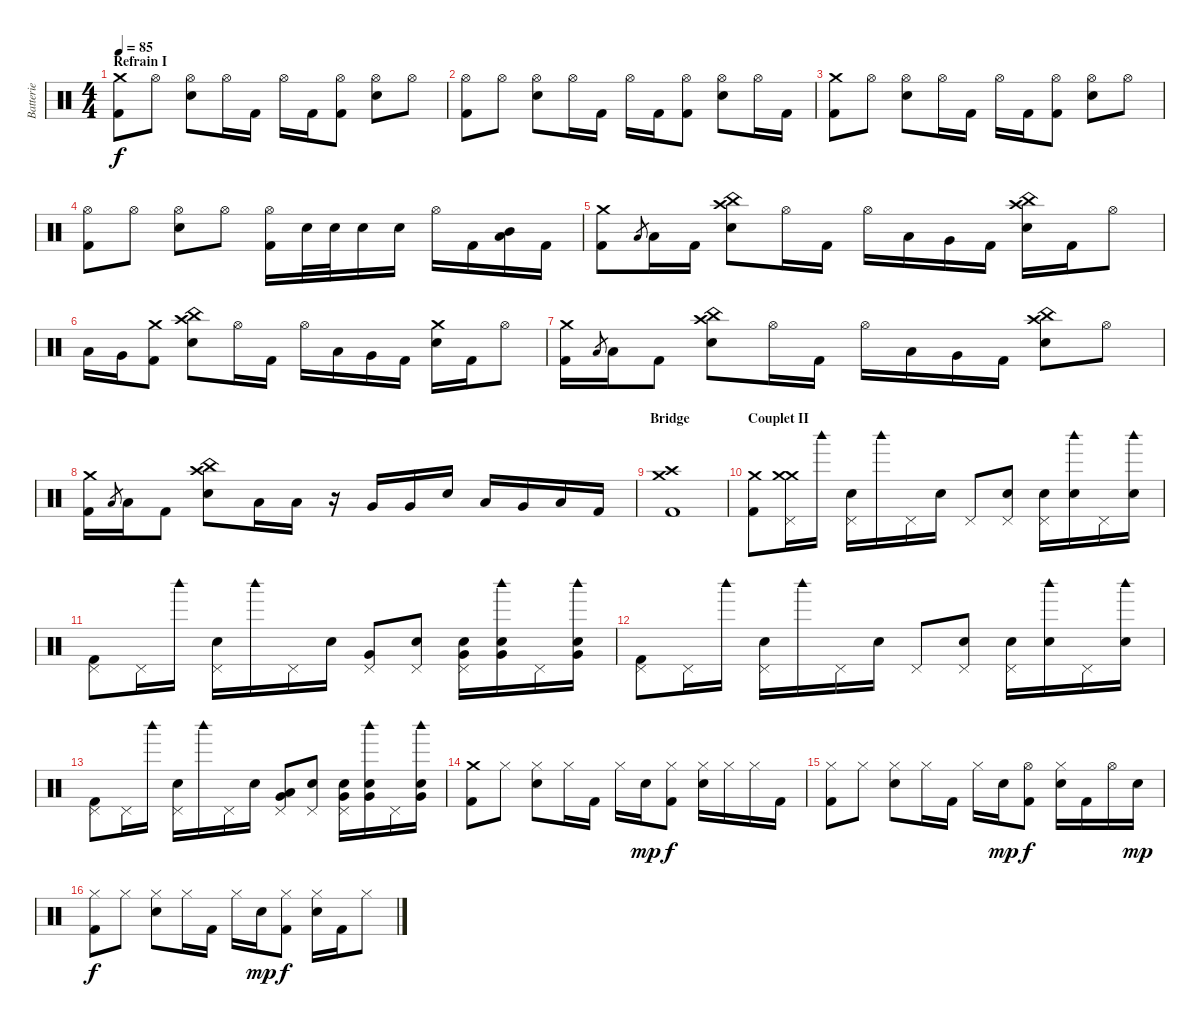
\track ("Batterie" "Batterie") {instrument percussion}
\staff {score}
\articulation defaults
\ts (4 4)
\section ("" "Refrain I")
\tempo 85
\clef neutral
\ks c
("Crash medium (hit)" "Kick (hit) 2").8{dy f} "Hi-Hat (open)".8 ("Hi-Hat (open)" "Electric Snare (hit)").8 "Hi-Hat (open)".16 "Kick (hit) 2".16 "Hi-Hat (open)".16 "Kick (hit) 2".16 ("Hi-Hat (open)" "Kick (hit) 2").8 ("Hi-Hat (open)" "Electric Snare (hit)").8 "Hi-Hat (open)".8 |
("Hi-Hat (open)" "Kick (hit) 2").8 "Hi-Hat (open)".8 ("Hi-Hat (open)" "Electric Snare (hit)").8 "Hi-Hat (open)".16 "Kick (hit) 2".16 "Hi-Hat (open)".16 "Kick (hit) 2".16 ("Hi-Hat (open)" "Kick (hit) 2").8 ("Hi-Hat (open)" "Electric Snare (hit)").8 "Hi-Hat (open)".16 "Kick (hit) 2".16 |
("Crash medium (hit)" "Kick (hit) 2").8 "Hi-Hat (open)".8 ("Hi-Hat (open)" "Electric Snare (hit)").8 "Hi-Hat (open)".16 "Kick (hit) 2".16 "Hi-Hat (open)".16 "Kick (hit) 2".16 ("Hi-Hat (open)" "Kick (hit) 2").8 ("Hi-Hat (open)" "Electric Snare (hit)").8 "Hi-Hat (open)".8 |
("Hi-Hat (open)" "Kick (hit) 2").8 "Hi-Hat (open)".8 ("Hi-Hat (open)" "Electric Snare (hit)").8 "Hi-Hat (open)".8 ("Hi-Hat (open)" "Kick (hit) 2").16 "Electric Snare (hit)".32 "Electric Snare (hit)".32 "Electric Snare (hit)".16 "Electric Snare (hit)".16 "Hi-Hat (open)".16 "Kick (hit) 2".16 ("Mid Tom (hit)" "Low Tom (hit)").16 "Kick (hit) 2".16 |
("Crash medium (hit)" "Kick (hit) 2").8 "Low Tom (hit)".8{gr} "Low Tom (hit)".16 "Kick (hit) 2".16 ("Crash high (hit)" "China (hit)" "Electric Snare (hit)").8 "Hi-Hat (open)".16 "Kick (hit) 2".16 "Hi-Hat (open)".16 "Low Tom (hit)".16 "Very Low Tom (hit)".16 "Kick (hit) 2".16 ("Crash high (hit)" "China (hit)" "Electric Snare (hit)").16 "Kick (hit) 2".16 "Hi-Hat (open)".8 |
"Low Tom (hit)".16 "Very Low Tom (hit)".16 ("Crash medium (hit)" "Kick (hit) 2").8 ("Crash high (hit)" "China (hit)" "Electric Snare (hit)").8 "Hi-Hat (open)".16 "Kick (hit) 2".16 "Hi-Hat (open)".16 "Low Tom (hit)".16 "Very Low Tom (hit)".16 "Kick (hit) 2".16 ("Crash medium (hit)" "Electric Snare (hit)").16 "Kick (hit) 2".16 "Hi-Hat (open)".8 |
("Crash medium (hit)" "Kick (hit) 2").16 "Low Tom (hit)".8{gr} "Low Tom (hit)".16 "Kick (hit) 2".8 ("Crash high (hit)" "China (hit)" "Electric Snare (hit)").8 "Hi-Hat (open)".16 "Kick (hit) 2".16 "Hi-Hat (open)".16 "Low Tom (hit)".16 "Very Low Tom (hit)".16 "Kick (hit) 2".16 ("Crash high (hit)" "China (hit)" "Electric Snare (hit)").8 "Hi-Hat (open)".8 |
("Crash medium (hit)" "Kick (hit) 2").16 "Low Tom (hit)".8{gr} "Low Tom (hit)".16 "Kick (hit) 2".8 ("Crash high (hit)" "China (hit)" "Electric Snare (hit)").8 "Low Tom (hit)".16 "Low Tom (hit)".16 r.16 "Very Low Tom (hit)".16 "Very Low Tom (hit)".16 "Electric Snare (hit)".16 "Low Tom (hit)".16 "Very Low Tom (hit)".16 "Low Floor Tom (hit)".16 "Kick (hit) 2".16 |
\section ("" "Bridge")
("Crash medium (hit)" "Crash high (hit)" "Kick (hit) 2").1 |
\section ("" "Couplet II")
("Crash medium (hit)" "Kick (hit) 2").8 ("Crash medium (hit)" "Crash medium (hit)" "Pedal Hi-Hat (hit)").16{volume 6} "Woodblock high (hit)".16 ("Pedal Hi-Hat (hit)" "Electric Snare (hit)").16 "Woodblock high (hit)".16 "Pedal Hi-Hat (hit)".16 "Electric Snare (hit)".16 "Pedal Hi-Hat (hit)".8 ("Pedal Hi-Hat (hit)" "Electric Snare (hit)").8 ("Pedal Hi-Hat (hit)" "Electric Snare (hit)").16 ("Electric Snare (hit)" "Woodblock high (hit)").16 "Pedal Hi-Hat (hit)".16 ("Electric Snare (hit)" "Woodblock high (hit)").16 |
("Pedal Hi-Hat (hit)" "Kick (hit) 2").8 "Pedal Hi-Hat (hit)".16 "Woodblock high (hit)".16 ("Pedal Hi-Hat (hit)" "Electric Snare (hit)").16 "Woodblock high (hit)".16 "Pedal Hi-Hat (hit)".16 "Electric Snare (hit)".16 ("Pedal Hi-Hat (hit)" "Very Low Tom (hit)").8 ("Pedal Hi-Hat (hit)" "Electric Snare (hit)").8 ("Pedal Hi-Hat (hit)" "Electric Snare (hit)" "Very Low Tom (hit)").16 ("Electric Snare (hit)" "Woodblock high (hit)" "Very Low Tom (hit)").16 "Pedal Hi-Hat (hit)".16 ("Electric Snare (hit)" "Woodblock high (hit)" "Very Low Tom (hit)").16 |
("Pedal Hi-Hat (hit)" "Kick (hit) 2").8 "Pedal Hi-Hat (hit)".16 "Woodblock high (hit)".16 ("Pedal Hi-Hat (hit)" "Electric Snare (hit)").16 "Woodblock high (hit)".16 "Pedal Hi-Hat (hit)".16 "Electric Snare (hit)".16 "Pedal Hi-Hat (hit)".8 ("Pedal Hi-Hat (hit)" "Electric Snare (hit)").8 ("Pedal Hi-Hat (hit)" "Electric Snare (hit)").16 ("Electric Snare (hit)" "Woodblock high (hit)").16 "Pedal Hi-Hat (hit)".16 ("Electric Snare (hit)" "Woodblock high (hit)").16 |
("Pedal Hi-Hat (hit)" "Kick (hit) 2").8 "Pedal Hi-Hat (hit)".16 "Woodblock high (hit)".16 ("Pedal Hi-Hat (hit)" "Electric Snare (hit)").16 "Woodblock high (hit)".16 "Pedal Hi-Hat (hit)".16 "Electric Snare (hit)".16 ("Pedal Hi-Hat (hit)" "Low Tom (hit)" "Very Low Tom (hit)").8 ("Pedal Hi-Hat (hit)" "Electric Snare (hit)").8 ("Pedal Hi-Hat (hit)" "Electric Snare (hit)" "Very Low Tom (hit)").16 ("Electric Snare (hit)" "Woodblock high (hit)" "Very Low Tom (hit)").16 "Pedal Hi-Hat (hit)".16 ("Electric Snare (hit)" "Woodblock high (hit)" "Very Low Tom (hit)").16 |
("Crash medium (hit)" "Kick (hit) 2").8{volume 13} "Hi-Hat (closed)".8 ("Hi-Hat (closed)" "Electric Snare (hit)").8 "Hi-Hat (closed)".16 "Kick (hit) 2".16 "Hi-Hat (closed)".16 "Electric Snare (hit)".16{dy mp} ("Hi-Hat (closed)" "Kick (hit) 2").8{dy f} ("Hi-Hat (closed)" "Electric Snare (hit)").16 "Hi-Hat (closed)".16 "Hi-Hat (closed)".16 "Kick (hit) 2".16 |
("Hi-Hat (closed)" "Kick (hit) 2").8 "Hi-Hat (closed)".8 ("Hi-Hat (closed)" "Electric Snare (hit)").8 "Hi-Hat (closed)".16 "Kick (hit) 2".16 "Hi-Hat (closed)".16 "Electric Snare (hit)".16{dy mp} ("Hi-Hat (open)" "Kick (hit) 2").8{dy f} ("Hi-Hat (closed)" "Electric Snare (hit)").16 "Kick (hit) 2".16 "Hi-Hat (open)".16 "Electric Snare (hit)".16{dy mp} |
("Hi-Hat (closed)" "Kick (hit) 2").8{dy f} "Hi-Hat (closed)".8 ("Hi-Hat (closed)" "Electric Snare (hit)").8 "Hi-Hat (closed)".16 "Kick (hit) 2".16 "Hi-Hat (closed)".16 "Electric Snare (hit)".16{dy mp} ("Hi-Hat (closed)" "Kick (hit) 2").8{dy f} ("Hi-Hat (closed)" "Electric Snare (hit)").16 "Kick (hit) 2".16 "Hi-Hat (closed)".8
